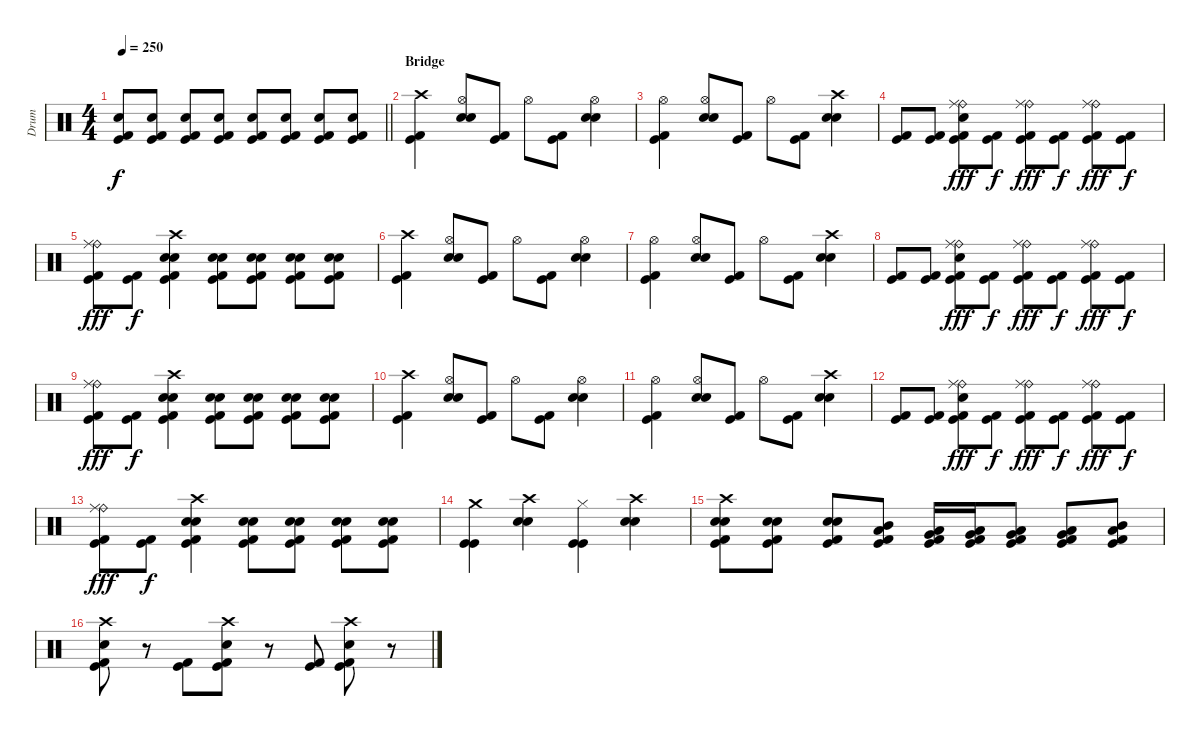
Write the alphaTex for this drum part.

\track ("Drum" "Drum") {instrument percussion}
\staff {score}
\articulation defaults
\ts (4 4)
\tempo 250
\clef neutral
\barLineRight lightlight
\ks c
("Electric Snare (hit)" "Kick (hit) 2" "Kick (hit)").8{dy f} ("Electric Snare (hit)" "Kick (hit) 2" "Kick (hit)").8 ("Electric Snare (hit)" "Kick (hit) 2" "Kick (hit)").8 ("Electric Snare (hit)" "Kick (hit) 2" "Kick (hit)").8 ("Electric Snare (hit)" "Kick (hit) 2" "Kick (hit)").8 ("Electric Snare (hit)" "Kick (hit) 2" "Kick (hit)").8 ("Electric Snare (hit)" "Kick (hit) 2" "Kick (hit)").8 ("Electric Snare (hit)" "Kick (hit) 2" "Kick (hit)").8 |
\section ("" "Bridge")
("Crash high (hit)" "Kick (hit) 2" "Kick (hit)").4 ("Hi-Hat (open)" "Electric Snare (hit)" "Snare (hit) 2").8 ("Kick (hit) 2" "Kick (hit)").8 "Hi-Hat (open)".8 ("Kick (hit) 2" "Kick (hit)").8 ("Hi-Hat (open)" "Electric Snare (hit)" "Snare (hit) 2").4 |
("Hi-Hat (open)" "Kick (hit) 2" "Kick (hit)").4 ("Hi-Hat (open)" "Electric Snare (hit)" "Snare (hit) 2").8 ("Kick (hit) 2" "Kick (hit)").8 "Hi-Hat (open)".8 ("Kick (hit) 2" "Kick (hit)").8 ("Crash high (hit)" "Electric Snare (hit)" "Snare (hit) 2").4 |
("Kick (hit) 2" "Kick (hit)").8 ("Kick (hit) 2" "Kick (hit)").8 ("Ride (bell)" "Ride (middle)" "Electric Snare (hit)" "Kick (hit) 2" "Kick (hit)").8{dy fff volume 16 balance 13} ("Kick (hit) 2" "Kick (hit)").8{dy f} ("Ride (bell)" "Ride (middle)" "Kick (hit) 2" "Kick (hit)").8{dy fff} ("Kick (hit) 2" "Kick (hit)").8{dy f} ("Ride (bell)" "Ride (middle)" "Kick (hit) 2" "Kick (hit)").8{dy fff} ("Kick (hit) 2" "Kick (hit)").8{dy f} |
("Ride (bell)" "Ride (middle)" "Kick (hit) 2" "Kick (hit)").8{dy fff} ("Kick (hit) 2" "Kick (hit)").8{dy f} ("Crash high (hit)" "Electric Snare (hit)" "Snare (hit) 2" "Kick (hit) 2" "Kick (hit)").4{volume 14 balance 8} ("Electric Snare (hit)" "Snare (hit) 2" "Kick (hit) 2" "Kick (hit)").8 ("Electric Snare (hit)" "Snare (hit) 2" "Kick (hit) 2" "Kick (hit)").8 ("Electric Snare (hit)" "Snare (hit) 2" "Kick (hit) 2" "Kick (hit)").8 ("Electric Snare (hit)" "Snare (hit) 2" "Kick (hit) 2" "Kick (hit)").8 |
("Crash high (hit)" "Kick (hit) 2" "Kick (hit)").4 ("Hi-Hat (open)" "Electric Snare (hit)" "Snare (hit) 2").8 ("Kick (hit) 2" "Kick (hit)").8 "Hi-Hat (open)".8 ("Kick (hit) 2" "Kick (hit)").8 ("Hi-Hat (open)" "Electric Snare (hit)" "Snare (hit) 2").4 |
("Hi-Hat (open)" "Kick (hit) 2" "Kick (hit)").4 ("Hi-Hat (open)" "Electric Snare (hit)" "Snare (hit) 2").8 ("Kick (hit) 2" "Kick (hit)").8 "Hi-Hat (open)".8 ("Kick (hit) 2" "Kick (hit)").8 ("Crash high (hit)" "Electric Snare (hit)" "Snare (hit) 2").4 |
("Kick (hit) 2" "Kick (hit)").8 ("Kick (hit) 2" "Kick (hit)").8 ("Ride (bell)" "Ride (middle)" "Electric Snare (hit)" "Kick (hit) 2" "Kick (hit)").8{dy fff volume 16 balance 13} ("Kick (hit) 2" "Kick (hit)").8{dy f} ("Ride (bell)" "Ride (middle)" "Kick (hit) 2" "Kick (hit)").8{dy fff} ("Kick (hit) 2" "Kick (hit)").8{dy f} ("Ride (bell)" "Ride (middle)" "Kick (hit) 2" "Kick (hit)").8{dy fff} ("Kick (hit) 2" "Kick (hit)").8{dy f} |
("Ride (bell)" "Ride (middle)" "Kick (hit) 2" "Kick (hit)").8{dy fff} ("Kick (hit) 2" "Kick (hit)").8{dy f} ("Crash high (hit)" "Electric Snare (hit)" "Snare (hit) 2" "Kick (hit) 2" "Kick (hit)").4{volume 14 balance 8} ("Electric Snare (hit)" "Snare (hit) 2" "Kick (hit) 2" "Kick (hit)").8 ("Electric Snare (hit)" "Snare (hit) 2" "Kick (hit) 2" "Kick (hit)").8 ("Electric Snare (hit)" "Snare (hit) 2" "Kick (hit) 2" "Kick (hit)").8 ("Electric Snare (hit)" "Snare (hit) 2" "Kick (hit) 2" "Kick (hit)").8 |
("Crash high (hit)" "Kick (hit) 2" "Kick (hit)").4 ("Hi-Hat (open)" "Electric Snare (hit)" "Snare (hit) 2").8 ("Kick (hit) 2" "Kick (hit)").8 "Hi-Hat (open)".8 ("Kick (hit) 2" "Kick (hit)").8 ("Hi-Hat (open)" "Electric Snare (hit)" "Snare (hit) 2").4 |
("Hi-Hat (open)" "Kick (hit) 2" "Kick (hit)").4 ("Hi-Hat (open)" "Electric Snare (hit)" "Snare (hit) 2").8 ("Kick (hit) 2" "Kick (hit)").8 "Hi-Hat (open)".8 ("Kick (hit) 2" "Kick (hit)").8 ("Crash high (hit)" "Electric Snare (hit)" "Snare (hit) 2").4 |
("Kick (hit) 2" "Kick (hit)").8 ("Kick (hit) 2" "Kick (hit)").8 ("Ride (bell)" "Ride (middle)" "Electric Snare (hit)" "Kick (hit) 2" "Kick (hit)").8{dy fff volume 16 balance 13} ("Kick (hit) 2" "Kick (hit)").8{dy f} ("Ride (bell)" "Ride (middle)" "Kick (hit) 2" "Kick (hit)").8{dy fff} ("Kick (hit) 2" "Kick (hit)").8{dy f} ("Ride (bell)" "Ride (middle)" "Kick (hit) 2" "Kick (hit)").8{dy fff} ("Kick (hit) 2" "Kick (hit)").8{dy f} |
("Ride (bell)" "Ride (middle)" "Kick (hit) 2" "Kick (hit)").8{dy fff} ("Kick (hit) 2" "Kick (hit)").8{dy f} ("Crash high (hit)" "Electric Snare (hit)" "Snare (hit) 2" "Kick (hit) 2" "Kick (hit)").4{volume 14 balance 8} ("Electric Snare (hit)" "Snare (hit) 2" "Kick (hit) 2" "Kick (hit)").8 ("Electric Snare (hit)" "Snare (hit) 2" "Kick (hit) 2" "Kick (hit)").8 ("Electric Snare (hit)" "Snare (hit) 2" "Kick (hit) 2" "Kick (hit)").8 ("Electric Snare (hit)" "Snare (hit) 2" "Kick (hit) 2" "Kick (hit)").8 |
("Crash medium (hit)" "Kick (hit)" "Kick (hit)").4 ("Crash high (hit)" "Electric Snare (hit)" "Snare (hit) 2").4 ("Hi-Hat (closed)" "Kick (hit)" "Kick (hit)").4 ("Crash high (hit)" "Electric Snare (hit)" "Snare (hit) 2").4 |
("Crash high (hit)" "Electric Snare (hit)" "Snare (hit) 2" "Kick (hit) 2" "Kick (hit)").8 ("Electric Snare (hit)" "Snare (hit) 2" "Kick (hit) 2" "Kick (hit)").8 ("Electric Snare (hit)" "Snare (hit) 2" "Kick (hit) 2" "Kick (hit)").8 ("Low Floor Tom (hit)" "Mid Tom (hit)" "Kick (hit) 2" "Kick (hit)").8 ("Low Floor Tom (hit)" "Very Low Tom (hit)" "Kick (hit) 2" "Kick (hit)").16{balance 3} ("Low Floor Tom (hit)" "Very Low Tom (hit)" "Kick (hit) 2" "Kick (hit)").16 ("Low Floor Tom (hit)" "Very Low Tom (hit)" "Kick (hit) 2" "Kick (hit)").8 ("Low Floor Tom (hit)" "Very Low Tom (hit)" "Kick (hit) 2" "Kick (hit)").8 ("Low Tom (hit)" "Mid Tom (hit)" "Kick (hit) 2" "Kick (hit)").8{balance 14} |
("Crash high (hit)" "Electric Snare (hit)" "Kick (hit) 2" "Kick (hit)").8{balance 8} r.8 ("Kick (hit) 2" "Kick (hit)").8 ("Crash high (hit)" "Electric Snare (hit)" "Kick (hit) 2" "Kick (hit)").8 r.8 ("Kick (hit) 2" "Kick (hit)").8 ("Crash high (hit)" "Electric Snare (hit)" "Kick (hit) 2" "Kick (hit)").8 r.8
